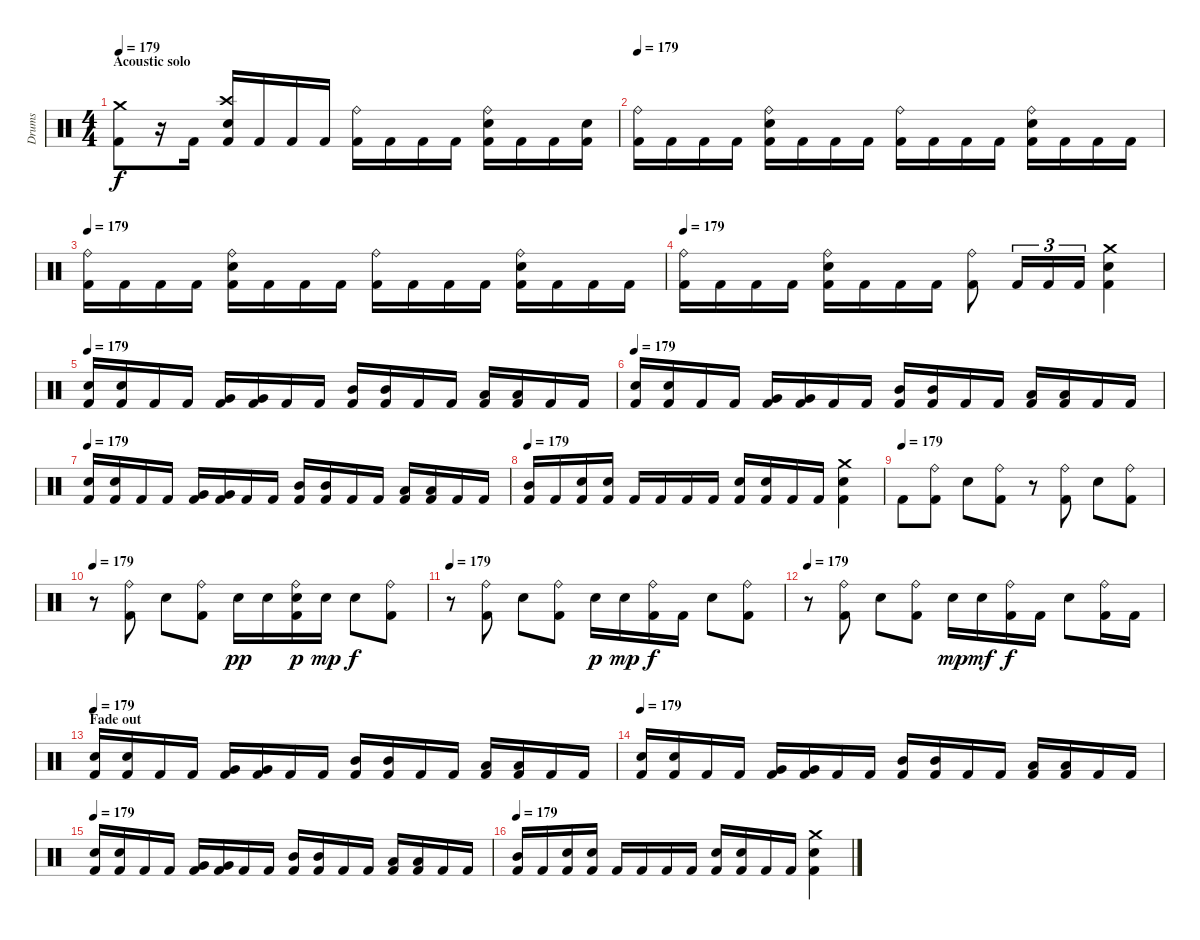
\track ("Drums" "Drums") {instrument percussion}
\staff {score}
\articulation defaults
\ts (4 4)
\section ("" "Acoustic solo")
\tempo 179
\clef neutral
\ks c
("Crash medium (hit)" "Kick (hit) 2").8{dy f} r.16 "Kick (hit) 2".16 ("Crash high (hit)" "Electric Snare (hit)" "Kick (hit) 2").16 "Kick (hit) 2".16 "Kick (hit) 2".16 "Kick (hit) 2".16 ("Ride (bell)" "Kick (hit) 2").16 "Kick (hit) 2".16 "Kick (hit) 2".16 "Kick (hit) 2".16 ("Ride (bell)" "Electric Snare (hit)" "Kick (hit) 2").16 "Kick (hit) 2".16 "Kick (hit) 2".16 ("Electric Snare (hit)" "Kick (hit) 2").16 |
\tempo 179
("Ride (bell)" "Kick (hit) 2").16 "Kick (hit) 2".16 "Kick (hit) 2".16 "Kick (hit) 2".16 ("Ride (bell)" "Electric Snare (hit)" "Kick (hit) 2").16 "Kick (hit) 2".16 "Kick (hit) 2".16 "Kick (hit) 2".16 ("Ride (bell)" "Kick (hit) 2").16 "Kick (hit) 2".16 "Kick (hit) 2".16 "Kick (hit) 2".16 ("Ride (bell)" "Electric Snare (hit)" "Kick (hit) 2").16 "Kick (hit) 2".16 "Kick (hit) 2".16 "Kick (hit) 2".16 |
\tempo 179
("Ride (bell)" "Kick (hit) 2").16 "Kick (hit) 2".16 "Kick (hit) 2".16 "Kick (hit) 2".16 ("Ride (bell)" "Electric Snare (hit)" "Kick (hit) 2").16 "Kick (hit) 2".16 "Kick (hit) 2".16 "Kick (hit) 2".16 ("Ride (bell)" "Kick (hit) 2").16 "Kick (hit) 2".16 "Kick (hit) 2".16 "Kick (hit) 2".16 ("Ride (bell)" "Electric Snare (hit)" "Kick (hit) 2").16 "Kick (hit) 2".16 "Kick (hit) 2".16 "Kick (hit) 2".16 |
\tempo 179
("Ride (bell)" "Kick (hit) 2").16 "Kick (hit) 2".16 "Kick (hit) 2".16 "Kick (hit) 2".16 ("Ride (bell)" "Electric Snare (hit)" "Kick (hit) 2").16 "Kick (hit) 2".16 "Kick (hit) 2".16 "Kick (hit) 2".16 ("Ride (bell)" "Kick (hit) 2").8 "Kick (hit) 2".16{tu (3 2)} "Kick (hit) 2".16{tu (3 2)} "Kick (hit) 2".16{tu (3 2)} ("Crash medium (hit)" "Electric Snare (hit)" "Kick (hit) 2").4 |
\tempo 179
("Electric Snare (hit)" "Kick (hit) 2").16 ("Electric Snare (hit)" "Kick (hit) 2").16 "Kick (hit) 2".16 "Kick (hit) 2".16 ("Very Low Tom (hit)" "Kick (hit) 2").16 ("Very Low Tom (hit)" "Kick (hit) 2").16 "Kick (hit) 2".16 "Kick (hit) 2".16 ("Mid Tom (hit)" "Kick (hit) 2").16 ("Mid Tom (hit)" "Kick (hit) 2").16 "Kick (hit) 2".16 "Kick (hit) 2".16 ("Low Tom (hit)" "Kick (hit) 2").16 ("Low Tom (hit)" "Kick (hit) 2").16 "Kick (hit) 2".16 "Kick (hit) 2".16 |
\tempo 179
("Electric Snare (hit)" "Kick (hit) 2").16 ("Electric Snare (hit)" "Kick (hit) 2").16 "Kick (hit) 2".16 "Kick (hit) 2".16 ("Very Low Tom (hit)" "Kick (hit) 2").16 ("Very Low Tom (hit)" "Kick (hit) 2").16 "Kick (hit) 2".16 "Kick (hit) 2".16 ("Mid Tom (hit)" "Kick (hit) 2").16 ("Mid Tom (hit)" "Kick (hit) 2").16 "Kick (hit) 2".16 "Kick (hit) 2".16 ("Low Tom (hit)" "Kick (hit) 2").16 ("Low Tom (hit)" "Kick (hit) 2").16 "Kick (hit) 2".16 "Kick (hit) 2".16 |
\tempo 179
("Electric Snare (hit)" "Kick (hit) 2").16 ("Electric Snare (hit)" "Kick (hit) 2").16 "Kick (hit) 2".16 "Kick (hit) 2".16 ("Very Low Tom (hit)" "Kick (hit) 2").16 ("Very Low Tom (hit)" "Kick (hit) 2").16 "Kick (hit) 2".16 "Kick (hit) 2".16 ("Mid Tom (hit)" "Kick (hit) 2").16 ("Mid Tom (hit)" "Kick (hit) 2").16 "Kick (hit) 2".16 "Kick (hit) 2".16 ("Low Tom (hit)" "Kick (hit) 2").16 ("Low Tom (hit)" "Kick (hit) 2").16 "Kick (hit) 2".16 "Kick (hit) 2".16 |
\tempo 179
("Mid Tom (hit)" "Kick (hit) 2").16 "Kick (hit) 2".16 ("Electric Snare (hit)" "Kick (hit) 2").16 ("Electric Snare (hit)" "Kick (hit) 2").16 "Kick (hit) 2".16 "Kick (hit) 2".16 "Kick (hit) 2".16 "Kick (hit) 2".16 ("Electric Snare (hit)" "Kick (hit) 2").16 ("Electric Snare (hit)" "Kick (hit) 2").16 "Kick (hit) 2".16 "Kick (hit) 2".16 ("Crash medium (hit)" "Electric Snare (hit)" "Kick (hit) 2").4 |
\tempo (179)
"Kick (hit) 2".8 ("Ride (bell)" "Kick (hit) 2").8 "Electric Snare (hit)".8 ("Ride (bell)" "Kick (hit) 2").8 r.8 ("Ride (bell)" "Kick (hit) 2").8 "Electric Snare (hit)".8 ("Ride (bell)" "Kick (hit) 2").8 |
\tempo 179
r.8 ("Ride (bell)" "Kick (hit) 2").8 "Electric Snare (hit)".8 ("Ride (bell)" "Kick (hit) 2").8 "Electric Snare (hit)".16{dy pp} "Electric Snare (hit)".16 ("Ride (bell)" "Electric Snare (hit)" "Kick (hit) 2").16{dy p} "Electric Snare (hit)".16{dy mp} "Electric Snare (hit)".8{dy f} ("Ride (bell)" "Kick (hit) 2").8 |
\tempo 179
r.8 ("Ride (bell)" "Kick (hit) 2").8 "Electric Snare (hit)".8 ("Ride (bell)" "Kick (hit) 2").8 "Electric Snare (hit)".16{dy p} "Electric Snare (hit)".16{dy mp} ("Ride (bell)" "Kick (hit) 2").16{dy f} "Kick (hit) 2".16 "Electric Snare (hit)".8 ("Ride (bell)" "Kick (hit) 2").8 |
\tempo 179
r.8 ("Ride (bell)" "Kick (hit) 2").8 "Electric Snare (hit)".8 ("Ride (bell)" "Kick (hit) 2").8 "Electric Snare (hit)".16{dy mp} "Electric Snare (hit)".16{dy mf} ("Ride (bell)" "Kick (hit) 2").16{dy f} "Kick (hit) 2".16 "Electric Snare (hit)".8 ("Ride (bell)" "Kick (hit) 2").16 "Kick (hit) 2".16 |
\section ("" "Fade out")
\tempo 179
("Electric Snare (hit)" "Kick (hit) 2").16 ("Electric Snare (hit)" "Kick (hit) 2").16 "Kick (hit) 2".16 "Kick (hit) 2".16 ("Very Low Tom (hit)" "Kick (hit) 2").16 ("Very Low Tom (hit)" "Kick (hit) 2").16 "Kick (hit) 2".16 "Kick (hit) 2".16 ("Mid Tom (hit)" "Kick (hit) 2").16 ("Mid Tom (hit)" "Kick (hit) 2").16 "Kick (hit) 2".16 "Kick (hit) 2".16 ("Low Tom (hit)" "Kick (hit) 2").16 ("Low Tom (hit)" "Kick (hit) 2").16 "Kick (hit) 2".16 "Kick (hit) 2".16 |
\tempo 179
("Electric Snare (hit)" "Kick (hit) 2").16 ("Electric Snare (hit)" "Kick (hit) 2").16 "Kick (hit) 2".16 "Kick (hit) 2".16 ("Very Low Tom (hit)" "Kick (hit) 2").16 ("Very Low Tom (hit)" "Kick (hit) 2").16 "Kick (hit) 2".16 "Kick (hit) 2".16 ("Mid Tom (hit)" "Kick (hit) 2").16 ("Mid Tom (hit)" "Kick (hit) 2").16 "Kick (hit) 2".16 "Kick (hit) 2".16 ("Low Tom (hit)" "Kick (hit) 2").16 ("Low Tom (hit)" "Kick (hit) 2").16 "Kick (hit) 2".16 "Kick (hit) 2".16 |
\tempo 179
("Electric Snare (hit)" "Kick (hit) 2").16 ("Electric Snare (hit)" "Kick (hit) 2").16 "Kick (hit) 2".16 "Kick (hit) 2".16 ("Very Low Tom (hit)" "Kick (hit) 2").16 ("Very Low Tom (hit)" "Kick (hit) 2").16 "Kick (hit) 2".16 "Kick (hit) 2".16 ("Mid Tom (hit)" "Kick (hit) 2").16 ("Mid Tom (hit)" "Kick (hit) 2").16 "Kick (hit) 2".16 "Kick (hit) 2".16 ("Low Tom (hit)" "Kick (hit) 2").16 ("Low Tom (hit)" "Kick (hit) 2").16 "Kick (hit) 2".16 "Kick (hit) 2".16 |
\tempo 179
("Mid Tom (hit)" "Kick (hit) 2").16 "Kick (hit) 2".16 ("Electric Snare (hit)" "Kick (hit) 2").16 ("Electric Snare (hit)" "Kick (hit) 2").16 "Kick (hit) 2".16 "Kick (hit) 2".16 "Kick (hit) 2".16 "Kick (hit) 2".16 ("Electric Snare (hit)" "Kick (hit) 2").16 ("Electric Snare (hit)" "Kick (hit) 2").16 "Kick (hit) 2".16 "Kick (hit) 2".16 ("Crash medium (hit)" "Electric Snare (hit)" "Kick (hit) 2").4
